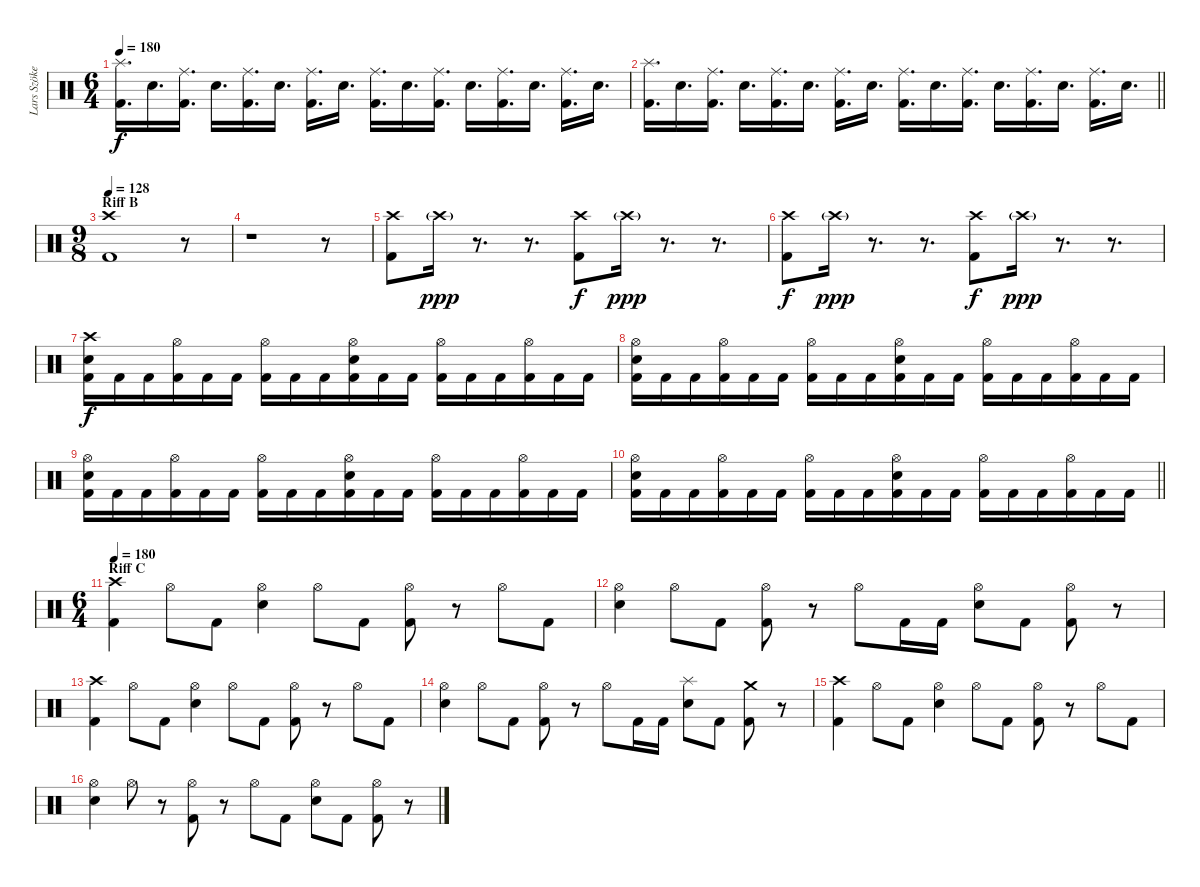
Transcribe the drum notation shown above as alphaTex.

\track ("Lars Szöke" "Lars Szöke") {instrument percussion}
\staff {score}
\articulation defaults
\ts (6 4)
\tempo 180
\clef neutral
\ks c
("Splash (hit)" "Kick (hit) 2").16{d dy f} "Snare (hit) 2".16{d} ("Ride (middle)" "Kick (hit) 2").16{d} "Snare (hit) 2".16{d} ("Ride (middle)" "Kick (hit) 2").16{d} "Snare (hit) 2".16{d} ("Ride (middle)" "Kick (hit) 2").16{d} "Snare (hit) 2".16{d} ("Ride (middle)" "Kick (hit) 2").16{d} "Snare (hit) 2".16{d} ("Ride (middle)" "Kick (hit) 2").16{d} "Snare (hit) 2".16{d} ("Ride (middle)" "Kick (hit) 2").16{d} "Snare (hit) 2".16{d} ("Ride (middle)" "Kick (hit) 2").16{d} "Snare (hit) 2".16{d} |
\barLineRight lightlight
("Splash (hit)" "Kick (hit) 2").16{d} "Snare (hit) 2".16{d} ("Ride (middle)" "Kick (hit) 2").16{d} "Snare (hit) 2".16{d} ("Ride (middle)" "Kick (hit) 2").16{d} "Snare (hit) 2".16{d} ("Ride (middle)" "Kick (hit) 2").16{d} "Snare (hit) 2".16{d} ("Ride (middle)" "Kick (hit) 2").16{d} "Snare (hit) 2".16{d} ("Ride (middle)" "Kick (hit) 2").16{d} "Snare (hit) 2".16{d} ("Ride (middle)" "Kick (hit) 2").16{d} "Snare (hit) 2".16{d} ("Ride (middle)" "Kick (hit) 2").16{d} "Snare (hit) 2".16{d} |
\ts (9 8)
\section ("" "Riff B")
\tempo 128
("Crash high (hit)" "Kick (hit) 2").1 r.8 |
r.1 r.8 |
("Crash high (hit)" "Kick (hit) 2").8 "Crash high (hit)"{g}.16{dy ppp} r.8{d} r.8{d} ("Crash high (hit)" "Kick (hit) 2").8{dy f} "Crash high (hit)"{g}.16{dy ppp} r.8{d} r.8{d} |
("Crash high (hit)" "Kick (hit) 2").8{dy f} "Crash high (hit)"{g}.16{dy ppp} r.8{d} r.8{d} ("Crash high (hit)" "Kick (hit) 2").8{dy f} "Crash high (hit)"{g}.16{dy ppp} r.8{d} r.8{d} |
("Crash high (hit)" "Snare (hit) 2" "Kick (hit) 2").16{dy f} "Kick (hit) 2".16 "Kick (hit) 2".16 ("Hi-Hat (open)" "Kick (hit) 2").16 "Kick (hit) 2".16 "Kick (hit) 2".16 ("Hi-Hat (open)" "Kick (hit) 2").16 "Kick (hit) 2".16 "Kick (hit) 2".16 ("Hi-Hat (open)" "Snare (hit) 2" "Kick (hit) 2").16 "Kick (hit) 2".16 "Kick (hit) 2".16 ("Hi-Hat (open)" "Kick (hit) 2").16 "Kick (hit) 2".16 "Kick (hit) 2".16 ("Hi-Hat (open)" "Kick (hit) 2").16 "Kick (hit) 2".16 "Kick (hit) 2".16 |
("Hi-Hat (open)" "Snare (hit) 2" "Kick (hit) 2").16 "Kick (hit) 2".16 "Kick (hit) 2".16 ("Hi-Hat (open)" "Kick (hit) 2").16 "Kick (hit) 2".16 "Kick (hit) 2".16 ("Hi-Hat (open)" "Kick (hit) 2").16 "Kick (hit) 2".16 "Kick (hit) 2".16 ("Hi-Hat (open)" "Snare (hit) 2" "Kick (hit) 2").16 "Kick (hit) 2".16 "Kick (hit) 2".16 ("Hi-Hat (open)" "Kick (hit) 2").16 "Kick (hit) 2".16 "Kick (hit) 2".16 ("Hi-Hat (open)" "Kick (hit) 2").16 "Kick (hit) 2".16 "Kick (hit) 2".16 |
("Hi-Hat (open)" "Snare (hit) 2" "Kick (hit) 2").16 "Kick (hit) 2".16 "Kick (hit) 2".16 ("Hi-Hat (open)" "Kick (hit) 2").16 "Kick (hit) 2".16 "Kick (hit) 2".16 ("Hi-Hat (open)" "Kick (hit) 2").16 "Kick (hit) 2".16 "Kick (hit) 2".16 ("Hi-Hat (open)" "Snare (hit) 2" "Kick (hit) 2").16 "Kick (hit) 2".16 "Kick (hit) 2".16 ("Hi-Hat (open)" "Kick (hit) 2").16 "Kick (hit) 2".16 "Kick (hit) 2".16 ("Hi-Hat (open)" "Kick (hit) 2").16 "Kick (hit) 2".16 "Kick (hit) 2".16 |
\barLineRight lightlight
("Hi-Hat (open)" "Snare (hit) 2" "Kick (hit) 2").16 "Kick (hit) 2".16 "Kick (hit) 2".16 ("Hi-Hat (open)" "Kick (hit) 2").16 "Kick (hit) 2".16 "Kick (hit) 2".16 ("Hi-Hat (open)" "Kick (hit) 2").16 "Kick (hit) 2".16 "Kick (hit) 2".16 ("Hi-Hat (open)" "Snare (hit) 2" "Kick (hit) 2").16 "Kick (hit) 2".16 "Kick (hit) 2".16 ("Hi-Hat (open)" "Kick (hit) 2").16 "Kick (hit) 2".16 "Kick (hit) 2".16 ("Hi-Hat (open)" "Kick (hit) 2").16 "Kick (hit) 2".16 "Kick (hit) 2".16 |
\ts (6 4)
\section ("" "Riff C")
\tempo 180
("Crash high (hit)" "Kick (hit) 2").4 "Hi-Hat (open)".8 "Kick (hit) 2".8 ("Hi-Hat (open)" "Snare (hit) 2").4 "Hi-Hat (open)".8 "Kick (hit) 2".8 ("Hi-Hat (open)" "Kick (hit) 2").8 r.8 "Hi-Hat (open)".8 "Kick (hit) 2".8 |
("Hi-Hat (open)" "Snare (hit) 2").4 "Hi-Hat (open)".8 "Kick (hit) 2".8 ("Hi-Hat (open)" "Kick (hit) 2").8 r.8 "Hi-Hat (open)".8 "Kick (hit) 2".16 "Kick (hit) 2".16 ("Hi-Hat (open)" "Snare (hit) 2").8 "Kick (hit) 2".8 ("Hi-Hat (open)" "Kick (hit) 2").8 r.8 |
("Crash high (hit)" "Kick (hit) 2").4 "Hi-Hat (open)".8 "Kick (hit) 2".8 ("Hi-Hat (open)" "Snare (hit) 2").4 "Hi-Hat (open)".8 "Kick (hit) 2".8 ("Hi-Hat (open)" "Kick (hit) 2").8 r.8 "Hi-Hat (open)".8 "Kick (hit) 2".8 |
("Hi-Hat (open)" "Snare (hit) 2").4 "Hi-Hat (open)".8 "Kick (hit) 2".8 ("Hi-Hat (open)" "Kick (hit) 2").8 r.8 "Hi-Hat (open)".8 "Kick (hit) 2".16 "Kick (hit) 2".16 ("Splash (hit)" "Snare (hit) 2").8 "Kick (hit) 2".8 ("Crash medium (hit)" "Kick (hit) 2").8 r.8 |
("Crash high (hit)" "Kick (hit) 2").4 "Hi-Hat (open)".8 "Kick (hit) 2".8 ("Hi-Hat (open)" "Snare (hit) 2").4 "Hi-Hat (open)".8 "Kick (hit) 2".8 ("Hi-Hat (open)" "Kick (hit) 2").8 r.8 "Hi-Hat (open)".8 "Kick (hit) 2".8 |
("Hi-Hat (open)" "Snare (hit) 2").4 "Hi-Hat (open)".8 r.8 ("Hi-Hat (open)" "Kick (hit) 2").8 r.8 "Hi-Hat (open)".8 "Kick (hit) 2".8 ("Hi-Hat (open)" "Snare (hit) 2").8 "Kick (hit) 2".8 ("Hi-Hat (open)" "Kick (hit) 2").8 r.8
